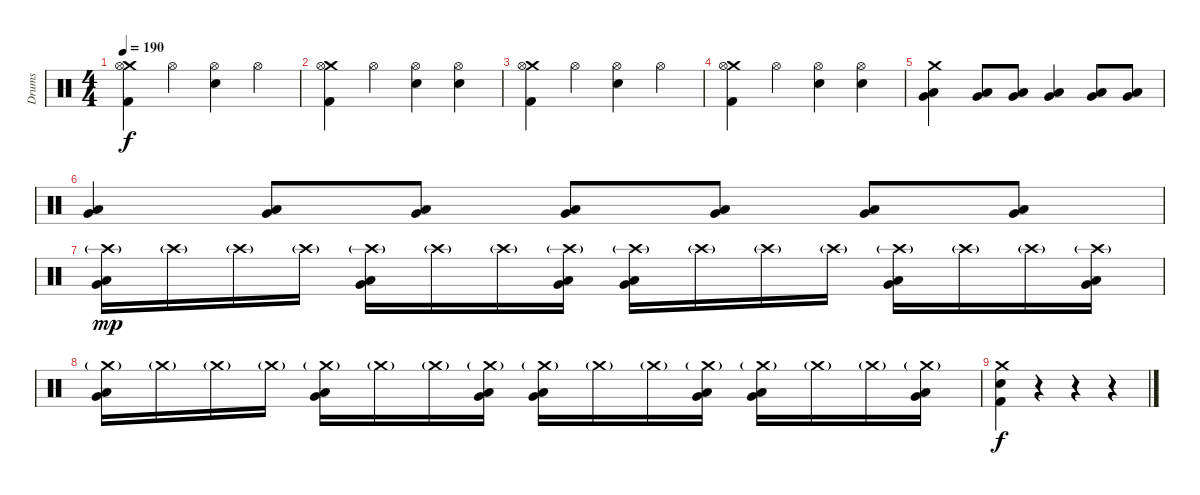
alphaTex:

\track ("Drums" "Drums") {instrument percussion}
\staff {score}
\articulation defaults
\ts (4 4)
\tempo 190
\clef neutral
\ks c
("Crash medium (hit)" "Hi-Hat (open)" "Kick (hit) 2").4{dy f} "Hi-Hat (open)".4 ("Hi-Hat (open)" "Electric Snare (hit)").4 "Hi-Hat (open)".4 |
("Crash medium (hit)" "Hi-Hat (open)" "Kick (hit) 2").4 "Hi-Hat (open)".4 ("Hi-Hat (open)" "Electric Snare (hit)").4 ("Hi-Hat (open)" "Electric Snare (hit)").4 |
("Crash medium (hit)" "Hi-Hat (open)" "Kick (hit) 2").4 "Hi-Hat (open)".4 ("Hi-Hat (open)" "Electric Snare (hit)").4 "Hi-Hat (open)".4 |
("Crash medium (hit)" "Hi-Hat (open)" "Kick (hit) 2").4 "Hi-Hat (open)".4 ("Hi-Hat (open)" "Electric Snare (hit)").4 ("Hi-Hat (open)" "Electric Snare (hit)").4 |
("Crash medium (hit)" "Low Tom (hit)" "Very Low Tom (hit)").4 ("Low Tom (hit)" "Very Low Tom (hit)").8 ("Low Tom (hit)" "Very Low Tom (hit)").8 ("Low Tom (hit)" "Very Low Tom (hit)").4 ("Low Tom (hit)" "Very Low Tom (hit)").8 ("Low Tom (hit)" "Very Low Tom (hit)").8 |
("Low Tom (hit)" "Very Low Tom (hit)").4 ("Low Tom (hit)" "Very Low Tom (hit)").8 ("Low Tom (hit)" "Very Low Tom (hit)").8 ("Low Tom (hit)" "Very Low Tom (hit)").8 ("Low Tom (hit)" "Very Low Tom (hit)").8 ("Low Tom (hit)" "Very Low Tom (hit)").8 ("Low Tom (hit)" "Very Low Tom (hit)").8 |
("Crash high (hit)"{g} "Low Tom (hit)" "Very Low Tom (hit)").16{dy mp} "Crash high (hit)"{g}.16 "Crash high (hit)"{g}.16 "Crash high (hit)"{g}.16 ("Crash high (hit)"{g} "Low Tom (hit)" "Very Low Tom (hit)").16 "Crash high (hit)"{g}.16 "Crash high (hit)"{g}.16 ("Crash high (hit)"{g} "Low Tom (hit)" "Very Low Tom (hit)").16 ("Crash high (hit)"{g} "Low Tom (hit)" "Very Low Tom (hit)").16 "Crash high (hit)"{g}.16 "Crash high (hit)"{g}.16 "Crash high (hit)"{g}.16 ("Crash high (hit)"{g} "Low Tom (hit)" "Very Low Tom (hit)").16 "Crash high (hit)"{g}.16 "Crash high (hit)"{g}.16 ("Crash high (hit)"{g} "Low Tom (hit)" "Very Low Tom (hit)").16 |
("Crash medium (hit)"{g} "Low Tom (hit)" "Very Low Tom (hit)").16 "Crash medium (hit)"{g}.16 "Crash medium (hit)"{g}.16 "Crash medium (hit)"{g}.16 ("Crash medium (hit)"{g} "Low Tom (hit)" "Very Low Tom (hit)").16 "Crash medium (hit)"{g}.16 "Crash medium (hit)"{g}.16 ("Crash medium (hit)"{g} "Low Tom (hit)" "Very Low Tom (hit)").16 ("Crash medium (hit)"{g} "Low Tom (hit)" "Very Low Tom (hit)").16 "Crash medium (hit)"{g}.16 "Crash medium (hit)"{g}.16 ("Crash medium (hit)"{g} "Low Tom (hit)" "Very Low Tom (hit)").16 ("Crash medium (hit)"{g} "Low Tom (hit)" "Very Low Tom (hit)").16 "Crash medium (hit)"{g}.16 "Crash medium (hit)"{g}.16 ("Crash medium (hit)"{g} "Low Tom (hit)" "Very Low Tom (hit)").16 |
("Crash medium (hit)" "Electric Snare (hit)" "Kick (hit) 2").4{dy f} r.4 r.4 r.4
